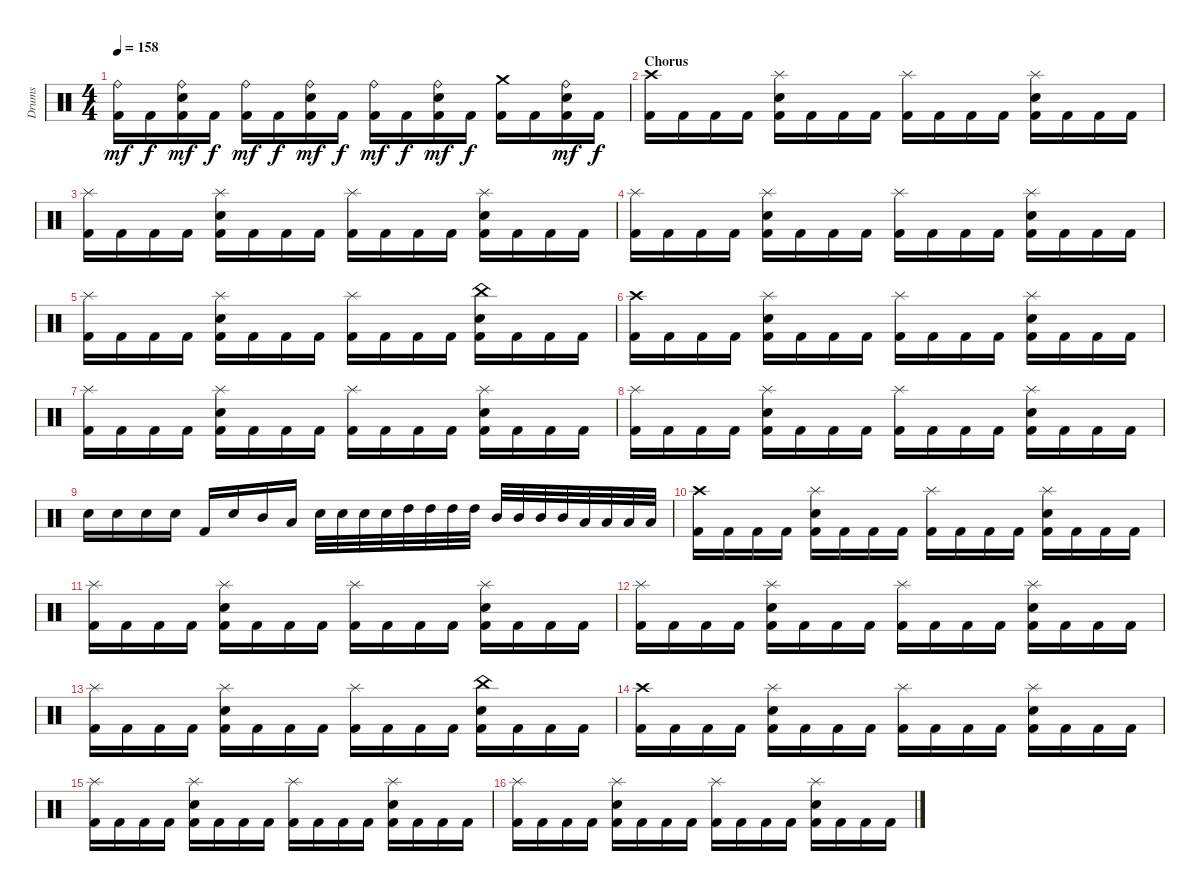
\track ("Drums" "Drums") {instrument percussion}
\staff {score}
\articulation defaults
\ts (4 4)
\tempo 158
\clef neutral
\ks c
("Ride (bell)" "Kick (hit) 2").16{dy mf} "Kick (hit) 2".16{dy f} ("Ride (bell)" "Electric Snare (hit)" "Kick (hit) 2").16{dy mf} "Kick (hit) 2".16{dy f} ("Ride (bell)" "Kick (hit) 2").16{dy mf} "Kick (hit) 2".16{dy f} ("Ride (bell)" "Electric Snare (hit)" "Kick (hit) 2").16{dy mf} "Kick (hit) 2".16{dy f} ("Ride (bell)" "Kick (hit) 2").16{dy mf} "Kick (hit) 2".16{dy f} ("Ride (bell)" "Electric Snare (hit)" "Kick (hit) 2").16{dy mf} "Kick (hit) 2".16{dy f} ("Crash medium (hit)" "Kick (hit) 2").16 "Kick (hit) 2".16 ("Ride (bell)" "Electric Snare (hit)" "Kick (hit) 2").16{dy mf} "Kick (hit) 2".16{dy f} |
\section ("" "Chorus")
("Crash high (hit)" "Kick (hit) 2").16 "Kick (hit) 2".16 "Kick (hit) 2".16 "Kick (hit) 2".16 ("Splash (hit)" "Electric Snare (hit)" "Kick (hit) 2").16 "Kick (hit) 2".16 "Kick (hit) 2".16 "Kick (hit) 2".16 ("Splash (hit)" "Kick (hit) 2").16 "Kick (hit) 2".16 "Kick (hit) 2".16 "Kick (hit) 2".16 ("Splash (hit)" "Electric Snare (hit)" "Kick (hit) 2").16 "Kick (hit) 2".16 "Kick (hit) 2".16 "Kick (hit) 2".16 |
("Splash (hit)" "Kick (hit) 2").16 "Kick (hit) 2".16 "Kick (hit) 2".16 "Kick (hit) 2".16 ("Splash (hit)" "Electric Snare (hit)" "Kick (hit) 2").16 "Kick (hit) 2".16 "Kick (hit) 2".16 "Kick (hit) 2".16 ("Splash (hit)" "Kick (hit) 2").16 "Kick (hit) 2".16 "Kick (hit) 2".16 "Kick (hit) 2".16 ("Splash (hit)" "Electric Snare (hit)" "Kick (hit) 2").16 "Kick (hit) 2".16 "Kick (hit) 2".16 "Kick (hit) 2".16 |
("Splash (hit)" "Kick (hit) 2").16 "Kick (hit) 2".16 "Kick (hit) 2".16 "Kick (hit) 2".16 ("Splash (hit)" "Electric Snare (hit)" "Kick (hit) 2").16 "Kick (hit) 2".16 "Kick (hit) 2".16 "Kick (hit) 2".16 ("Splash (hit)" "Kick (hit) 2").16 "Kick (hit) 2".16 "Kick (hit) 2".16 "Kick (hit) 2".16 ("Splash (hit)" "Electric Snare (hit)" "Kick (hit) 2").16 "Kick (hit) 2".16 "Kick (hit) 2".16 "Kick (hit) 2".16 |
("Splash (hit)" "Kick (hit) 2").16 "Kick (hit) 2".16 "Kick (hit) 2".16 "Kick (hit) 2".16 ("Splash (hit)" "Electric Snare (hit)" "Kick (hit) 2").16 "Kick (hit) 2".16 "Kick (hit) 2".16 "Kick (hit) 2".16 ("Splash (hit)" "Kick (hit) 2").16 "Kick (hit) 2".16 "Kick (hit) 2".16 "Kick (hit) 2".16 ("China (hit)" "Electric Snare (hit)" "Kick (hit) 2").16 "Kick (hit) 2".16 "Kick (hit) 2".16 "Kick (hit) 2".16 |
("Crash high (hit)" "Kick (hit) 2").16 "Kick (hit) 2".16 "Kick (hit) 2".16 "Kick (hit) 2".16 ("Splash (hit)" "Electric Snare (hit)" "Kick (hit) 2").16 "Kick (hit) 2".16 "Kick (hit) 2".16 "Kick (hit) 2".16 ("Splash (hit)" "Kick (hit) 2").16 "Kick (hit) 2".16 "Kick (hit) 2".16 "Kick (hit) 2".16 ("Splash (hit)" "Electric Snare (hit)" "Kick (hit) 2").16 "Kick (hit) 2".16 "Kick (hit) 2".16 "Kick (hit) 2".16 |
("Splash (hit)" "Kick (hit) 2").16 "Kick (hit) 2".16 "Kick (hit) 2".16 "Kick (hit) 2".16 ("Splash (hit)" "Electric Snare (hit)" "Kick (hit) 2").16 "Kick (hit) 2".16 "Kick (hit) 2".16 "Kick (hit) 2".16 ("Splash (hit)" "Kick (hit) 2").16 "Kick (hit) 2".16 "Kick (hit) 2".16 "Kick (hit) 2".16 ("Splash (hit)" "Electric Snare (hit)" "Kick (hit) 2").16 "Kick (hit) 2".16 "Kick (hit) 2".16 "Kick (hit) 2".16 |
("Splash (hit)" "Kick (hit) 2").16 "Kick (hit) 2".16 "Kick (hit) 2".16 "Kick (hit) 2".16 ("Splash (hit)" "Electric Snare (hit)" "Kick (hit) 2").16 "Kick (hit) 2".16 "Kick (hit) 2".16 "Kick (hit) 2".16 ("Splash (hit)" "Kick (hit) 2").16 "Kick (hit) 2".16 "Kick (hit) 2".16 "Kick (hit) 2".16 ("Splash (hit)" "Electric Snare (hit)" "Kick (hit) 2").16 "Kick (hit) 2".16 "Kick (hit) 2".16 "Kick (hit) 2".16 |
"Electric Snare (hit)".16 "Electric Snare (hit)".16 "Electric Snare (hit)".16 "Electric Snare (hit)".16 "Kick (hit) 2".16 "Electric Snare (hit)".16 "Mid Tom (hit)".16 "Low Tom (hit)".16 "Electric Snare (hit)".32 "Electric Snare (hit)".32 "Electric Snare (hit)".32 "Electric Snare (hit)".32 "High Tom (hit)".32 "High Tom (hit)".32 "High Tom (hit)".32 "High Tom (hit)".32 "Mid Tom (hit)".32 "Mid Tom (hit)".32 "Mid Tom (hit)".32 "Mid Tom (hit)".32 "Low Tom (hit)".32 "Low Tom (hit)".32 "Low Tom (hit)".32 "Low Tom (hit)".32 |
("Crash high (hit)" "Kick (hit) 2").16 "Kick (hit) 2".16 "Kick (hit) 2".16 "Kick (hit) 2".16 ("Splash (hit)" "Electric Snare (hit)" "Kick (hit) 2").16 "Kick (hit) 2".16 "Kick (hit) 2".16 "Kick (hit) 2".16 ("Splash (hit)" "Kick (hit) 2").16 "Kick (hit) 2".16 "Kick (hit) 2".16 "Kick (hit) 2".16 ("Splash (hit)" "Electric Snare (hit)" "Kick (hit) 2").16 "Kick (hit) 2".16 "Kick (hit) 2".16 "Kick (hit) 2".16 |
("Splash (hit)" "Kick (hit) 2").16 "Kick (hit) 2".16 "Kick (hit) 2".16 "Kick (hit) 2".16 ("Splash (hit)" "Electric Snare (hit)" "Kick (hit) 2").16 "Kick (hit) 2".16 "Kick (hit) 2".16 "Kick (hit) 2".16 ("Splash (hit)" "Kick (hit) 2").16 "Kick (hit) 2".16 "Kick (hit) 2".16 "Kick (hit) 2".16 ("Splash (hit)" "Electric Snare (hit)" "Kick (hit) 2").16 "Kick (hit) 2".16 "Kick (hit) 2".16 "Kick (hit) 2".16 |
("Splash (hit)" "Kick (hit) 2").16 "Kick (hit) 2".16 "Kick (hit) 2".16 "Kick (hit) 2".16 ("Splash (hit)" "Electric Snare (hit)" "Kick (hit) 2").16 "Kick (hit) 2".16 "Kick (hit) 2".16 "Kick (hit) 2".16 ("Splash (hit)" "Kick (hit) 2").16 "Kick (hit) 2".16 "Kick (hit) 2".16 "Kick (hit) 2".16 ("Splash (hit)" "Electric Snare (hit)" "Kick (hit) 2").16 "Kick (hit) 2".16 "Kick (hit) 2".16 "Kick (hit) 2".16 |
("Splash (hit)" "Kick (hit) 2").16 "Kick (hit) 2".16 "Kick (hit) 2".16 "Kick (hit) 2".16 ("Splash (hit)" "Electric Snare (hit)" "Kick (hit) 2").16 "Kick (hit) 2".16 "Kick (hit) 2".16 "Kick (hit) 2".16 ("Splash (hit)" "Kick (hit) 2").16 "Kick (hit) 2".16 "Kick (hit) 2".16 "Kick (hit) 2".16 ("China (hit)" "Electric Snare (hit)" "Kick (hit) 2").16 "Kick (hit) 2".16 "Kick (hit) 2".16 "Kick (hit) 2".16 |
("Crash high (hit)" "Kick (hit) 2").16 "Kick (hit) 2".16 "Kick (hit) 2".16 "Kick (hit) 2".16 ("Splash (hit)" "Electric Snare (hit)" "Kick (hit) 2").16 "Kick (hit) 2".16 "Kick (hit) 2".16 "Kick (hit) 2".16 ("Splash (hit)" "Kick (hit) 2").16 "Kick (hit) 2".16 "Kick (hit) 2".16 "Kick (hit) 2".16 ("Splash (hit)" "Electric Snare (hit)" "Kick (hit) 2").16 "Kick (hit) 2".16 "Kick (hit) 2".16 "Kick (hit) 2".16 |
("Splash (hit)" "Kick (hit) 2").16 "Kick (hit) 2".16 "Kick (hit) 2".16 "Kick (hit) 2".16 ("Splash (hit)" "Electric Snare (hit)" "Kick (hit) 2").16 "Kick (hit) 2".16 "Kick (hit) 2".16 "Kick (hit) 2".16 ("Splash (hit)" "Kick (hit) 2").16 "Kick (hit) 2".16 "Kick (hit) 2".16 "Kick (hit) 2".16 ("Splash (hit)" "Electric Snare (hit)" "Kick (hit) 2").16 "Kick (hit) 2".16 "Kick (hit) 2".16 "Kick (hit) 2".16 |
("Splash (hit)" "Kick (hit) 2").16 "Kick (hit) 2".16 "Kick (hit) 2".16 "Kick (hit) 2".16 ("Splash (hit)" "Electric Snare (hit)" "Kick (hit) 2").16 "Kick (hit) 2".16 "Kick (hit) 2".16 "Kick (hit) 2".16 ("Splash (hit)" "Kick (hit) 2").16 "Kick (hit) 2".16 "Kick (hit) 2".16 "Kick (hit) 2".16 ("Splash (hit)" "Electric Snare (hit)" "Kick (hit) 2").16 "Kick (hit) 2".16 "Kick (hit) 2".16 "Kick (hit) 2".16
